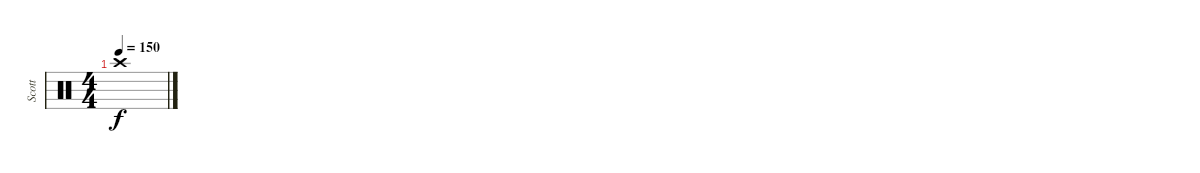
\track ("Scott" "Scott") {solo instrument percussion}
\staff {score}
\articulation defaults
\ts (4 4)
\tempo 150
\clef neutral
\ks c "Crash high (hit)".1{dy f}
